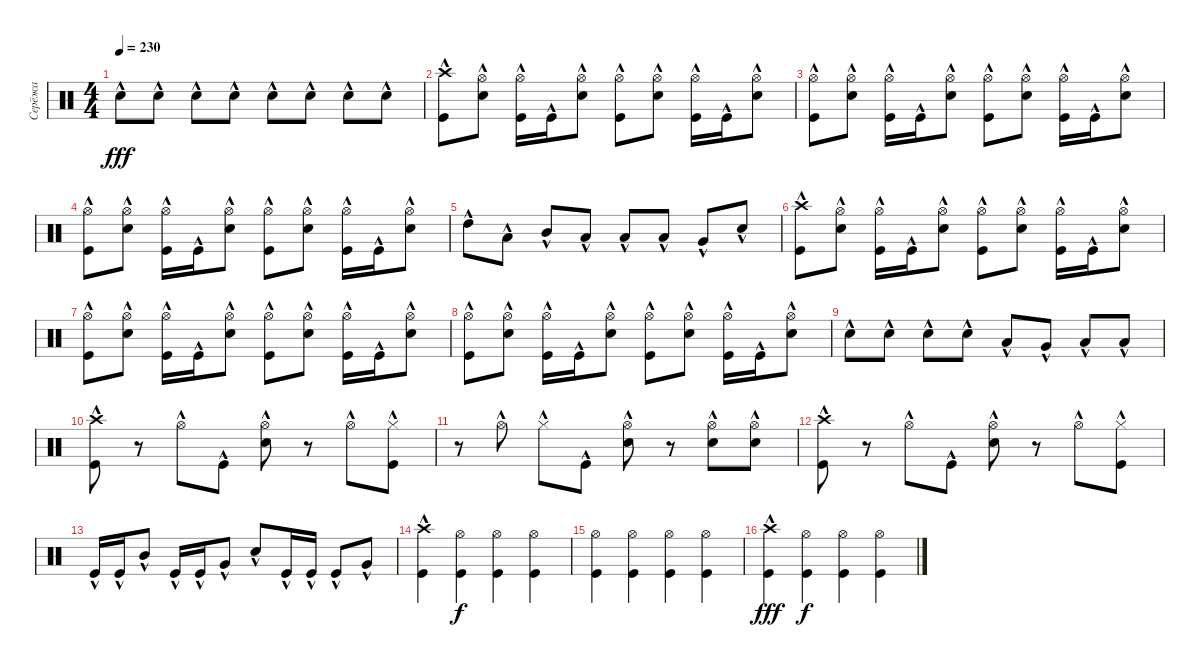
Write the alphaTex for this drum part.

\track ("Серёжа" "Серёжа") {instrument percussion}
\staff {score}
\articulation defaults
\ts (4 4)
\tempo 230
\clef neutral
\ks c "Snare (hit) 2"{hac}.8{dy fff} "Snare (hit) 2"{hac}.8 "Snare (hit) 2"{hac}.8 "Snare (hit) 2"{hac}.8 "Snare (hit) 2"{hac}.8 "Snare (hit) 2"{hac}.8 "Snare (hit) 2"{hac}.8 "Snare (hit) 2"{hac}.8
|
("Crash high (hit)"{hac} "Kick (hit)"{hac}).8 ("Hi-Hat (open)" "Snare (hit) 2"{hac}).8 ("Hi-Hat (open)" "Kick (hit)"{hac}).16 "Kick (hit)"{hac}.16 ("Hi-Hat (open)" "Snare (hit) 2"{hac}).8 ("Hi-Hat (open)" "Kick (hit)"{hac}).8 ("Hi-Hat (open)" "Snare (hit) 2"{hac}).8 ("Hi-Hat (open)" "Kick (hit)"{hac}).16 "Kick (hit)"{hac}.16 ("Hi-Hat (open)" "Snare (hit) 2"{hac}).8 |
("Hi-Hat (open)" "Kick (hit)"{hac}).8 ("Hi-Hat (open)" "Snare (hit) 2"{hac}).8 ("Hi-Hat (open)" "Kick (hit)"{hac}).16 "Kick (hit)"{hac}.16 ("Hi-Hat (open)" "Snare (hit) 2"{hac}).8 ("Hi-Hat (open)" "Kick (hit)"{hac}).8 ("Hi-Hat (open)" "Snare (hit) 2"{hac}).8 ("Hi-Hat (open)" "Kick (hit)"{hac}).16 "Kick (hit)"{hac}.16 ("Hi-Hat (open)" "Snare (hit) 2"{hac}).8 |
("Hi-Hat (open)" "Kick (hit)"{hac}).8 ("Hi-Hat (open)" "Snare (hit) 2"{hac}).8 ("Hi-Hat (open)" "Kick (hit)"{hac}).16 "Kick (hit)"{hac}.16 ("Hi-Hat (open)" "Snare (hit) 2"{hac}).8 ("Hi-Hat (open)" "Kick (hit)"{hac}).8 ("Hi-Hat (open)" "Snare (hit) 2"{hac}).8 ("Hi-Hat (open)" "Kick (hit)"{hac}).16 "Kick (hit)"{hac}.16 ("Hi-Hat (open)" "Snare (hit) 2"{hac}).8 |
"High Tom (hit)"{hac}.8 "Low Floor Tom (hit)"{hac}.8 "Mid Tom (hit)"{hac}.8 "Low Floor Tom (hit)"{hac}.8 "Low Tom (hit)"{hac}.8 "Low Floor Tom (hit)"{hac}.8 "Very Low Tom (hit)"{hac}.8 "Snare (hit) 2"{hac}.8 |
("Crash high (hit)"{hac} "Kick (hit)"{hac}).8 ("Hi-Hat (open)" "Snare (hit) 2"{hac}).8 ("Hi-Hat (open)" "Kick (hit)"{hac}).16 "Kick (hit)"{hac}.16 ("Hi-Hat (open)" "Snare (hit) 2"{hac}).8 ("Hi-Hat (open)" "Kick (hit)"{hac}).8 ("Hi-Hat (open)" "Snare (hit) 2"{hac}).8 ("Hi-Hat (open)" "Kick (hit)"{hac}).16 "Kick (hit)"{hac}.16 ("Hi-Hat (open)" "Snare (hit) 2"{hac}).8 |
("Hi-Hat (open)" "Kick (hit)"{hac}).8 ("Hi-Hat (open)" "Snare (hit) 2"{hac}).8 ("Hi-Hat (open)" "Kick (hit)"{hac}).16 "Kick (hit)"{hac}.16 ("Hi-Hat (open)" "Snare (hit) 2"{hac}).8 ("Hi-Hat (open)" "Kick (hit)"{hac}).8 ("Hi-Hat (open)" "Snare (hit) 2"{hac}).8 ("Hi-Hat (open)" "Kick (hit)"{hac}).16 "Kick (hit)"{hac}.16 ("Hi-Hat (open)" "Snare (hit) 2"{hac}).8 |
("Hi-Hat (open)" "Kick (hit)"{hac}).8 ("Hi-Hat (open)" "Snare (hit) 2"{hac}).8 ("Hi-Hat (open)" "Kick (hit)"{hac}).16 "Kick (hit)"{hac}.16 ("Hi-Hat (open)" "Snare (hit) 2"{hac}).8 ("Hi-Hat (open)" "Kick (hit)"{hac}).8 ("Hi-Hat (open)" "Snare (hit) 2"{hac}).8 ("Hi-Hat (open)" "Kick (hit)"{hac}).16 "Kick (hit)"{hac}.16 ("Hi-Hat (open)" "Snare (hit) 2"{hac}).8 |
"Snare (hit) 2"{hac}.8 "Snare (hit) 2"{hac}.8 "Snare (hit) 2"{hac}.8 "Snare (hit) 2"{hac}.8 "Low Tom (hit)"{hac}.8 "Very Low Tom (hit)"{hac}.8 "Low Tom (hit)"{hac}.8 "Low Floor Tom (hit)"{hac}.8 |
("Crash high (hit)"{hac} "Kick (hit)"{hac}).8 r.8 "Hi-Hat (open)"{hac}.8 "Kick (hit)"{hac}.8 ("Hi-Hat (open)" "Snare (hit) 2"{hac}).8 r.8 "Hi-Hat (open)"{hac}.8 ("Hi-Hat (closed)"{hac} "Kick (hit)"{hac}).8 |
r.8 "Hi-Hat (open)"{hac}.8 "Hi-Hat (closed)"{hac}.8 "Kick (hit)"{hac}.8 ("Hi-Hat (open)" "Snare (hit) 2"{hac}).8 r.8 ("Hi-Hat (open)" "Snare (hit) 2"{hac}).8 ("Hi-Hat (open)" "Snare (hit) 2"{hac}).8 |
("Crash high (hit)"{hac} "Kick (hit)"{hac}).8 r.8 "Hi-Hat (open)"{hac}.8 "Kick (hit)"{hac}.8 ("Hi-Hat (open)" "Snare (hit) 2"{hac}).8 r.8 "Hi-Hat (open)"{hac}.8 ("Hi-Hat (closed)"{hac} "Kick (hit)"{hac}).8 |
"Kick (hit)"{hac}.16 "Kick (hit)"{hac}.16 "Mid Tom (hit)"{hac}.8 "Kick (hit)"{hac}.16 "Kick (hit)"{hac}.16 "Very Low Tom (hit)"{hac}.8 "Snare (hit) 2"{hac}.8 "Kick (hit)"{hac}.16 "Kick (hit)"{hac}.16 "Kick (hit)"{hac}.8 "Very Low Tom (hit)"{hac}.8 |
("Crash high (hit)"{hac} "Kick (hit)"{hac}).4 ("Hi-Hat (open)" "Kick (hit)").4{dy f} ("Hi-Hat (open)" "Kick (hit)").4 ("Hi-Hat (open)" "Kick (hit)").4 |
("Hi-Hat (open)" "Kick (hit)").4 ("Hi-Hat (open)" "Kick (hit)").4 ("Hi-Hat (open)" "Kick (hit)").4 ("Hi-Hat (open)" "Kick (hit)").4 |
("Crash high (hit)"{hac} "Kick (hit)"{hac}).4{dy fff} ("Hi-Hat (open)" "Kick (hit)").4{dy f} ("Hi-Hat (open)" "Kick (hit)").4 ("Hi-Hat (open)" "Kick (hit)").4
